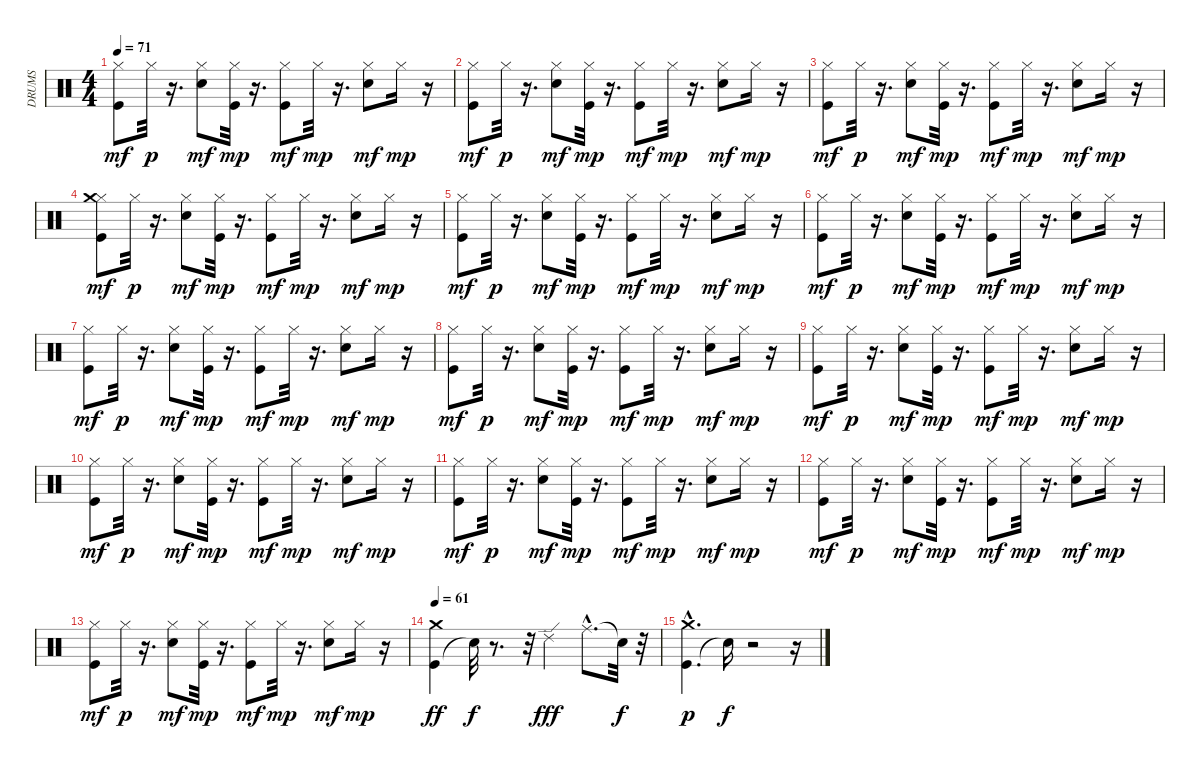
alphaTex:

\track ("DRUMS" "DRUMS") {instrument percussion}
\staff {score}
\articulation defaults
\ts (4 4)
\tempo 71
\clef neutral
\ks c
("Kick (hit)" "Hi-Hat (closed)").8{dy mf} "Hi-Hat (closed)".32{dy p} r.16{d} ("Snare (hit) 2" "Hi-Hat (closed)").8{dy mf} ("Kick (hit)" "Hi-Hat (closed)").32{dy mp} r.16{d} ("Kick (hit)" "Hi-Hat (closed)").8{dy mf} "Hi-Hat (closed)".32{dy mp} r.16{d} ("Snare (hit) 2" "Hi-Hat (closed)").8{dy mf} "Hi-Hat (closed)".16{dy mp} r.16 |
("Kick (hit)" "Hi-Hat (closed)").8{dy mf} "Hi-Hat (closed)".32{dy p} r.16{d} ("Snare (hit) 2" "Hi-Hat (closed)").8{dy mf} ("Hi-Hat (closed)" "Kick (hit)").32{dy mp} r.16{d} ("Kick (hit)" "Hi-Hat (closed)").8{dy mf} "Hi-Hat (closed)".32{dy mp} r.16{d} ("Snare (hit) 2" "Hi-Hat (closed)").8{dy mf} "Hi-Hat (closed)".16{dy mp} r.16 |
("Kick (hit)" "Hi-Hat (closed)").8{dy mf} "Hi-Hat (closed)".32{dy p} r.16{d} ("Snare (hit) 2" "Hi-Hat (closed)").8{dy mf} ("Kick (hit)" "Hi-Hat (closed)").32{dy mp} r.16{d} ("Kick (hit)" "Hi-Hat (closed)").8{dy mf} "Hi-Hat (closed)".32{dy mp} r.16{d} ("Snare (hit) 2" "Hi-Hat (closed)").8{dy mf} "Hi-Hat (closed)".16{dy mp} r.16 |
("Kick (hit)" "Hi-Hat (closed)" "Crash medium (hit)").8{dy mf} "Hi-Hat (closed)".32{dy p} r.16{d} ("Snare (hit) 2" "Hi-Hat (closed)").8{dy mf} ("Hi-Hat (closed)" "Kick (hit)").32{dy mp} r.16{d} ("Kick (hit)" "Hi-Hat (closed)").8{dy mf} "Hi-Hat (closed)".32{dy mp} r.16{d} ("Snare (hit) 2" "Hi-Hat (closed)").8{dy mf} "Hi-Hat (closed)".16{dy mp} r.16 |
("Kick (hit)" "Hi-Hat (closed)").8{dy mf} "Hi-Hat (closed)".32{dy p} r.16{d} ("Snare (hit) 2" "Hi-Hat (closed)").8{dy mf} ("Kick (hit)" "Hi-Hat (closed)").32{dy mp} r.16{d} ("Kick (hit)" "Hi-Hat (closed)").8{dy mf} "Hi-Hat (closed)".32{dy mp} r.16{d} ("Snare (hit) 2" "Hi-Hat (closed)").8{dy mf} "Hi-Hat (closed)".16{dy mp} r.16 |
("Kick (hit)" "Hi-Hat (closed)").8{dy mf} "Hi-Hat (closed)".32{dy p} r.16{d} ("Snare (hit) 2" "Hi-Hat (closed)").8{dy mf} ("Hi-Hat (closed)" "Kick (hit)").32{dy mp} r.16{d} ("Kick (hit)" "Hi-Hat (closed)").8{dy mf} "Hi-Hat (closed)".32{dy mp} r.16{d} ("Snare (hit) 2" "Hi-Hat (closed)").8{dy mf} "Hi-Hat (closed)".16{dy mp} r.16 |
("Kick (hit)" "Hi-Hat (closed)").8{dy mf} "Hi-Hat (closed)".32{dy p} r.16{d} ("Snare (hit) 2" "Hi-Hat (closed)").8{dy mf} ("Kick (hit)" "Hi-Hat (closed)").32{dy mp} r.16{d} ("Kick (hit)" "Hi-Hat (closed)").8{dy mf} "Hi-Hat (closed)".32{dy mp} r.16{d} ("Snare (hit) 2" "Hi-Hat (closed)").8{dy mf} "Hi-Hat (closed)".16{dy mp} r.16 |
("Kick (hit)" "Hi-Hat (closed)").8{dy mf} "Hi-Hat (closed)".32{dy p} r.16{d} ("Snare (hit) 2" "Hi-Hat (closed)").8{dy mf} ("Hi-Hat (closed)" "Kick (hit)").32{dy mp} r.16{d} ("Kick (hit)" "Hi-Hat (closed)").8{dy mf} "Hi-Hat (closed)".32{dy mp} r.16{d} ("Snare (hit) 2" "Hi-Hat (closed)").8{dy mf} "Hi-Hat (closed)".16{dy mp} r.16 |
("Kick (hit)" "Hi-Hat (closed)").8{dy mf} "Hi-Hat (closed)".32{dy p} r.16{d} ("Snare (hit) 2" "Hi-Hat (closed)").8{dy mf} ("Kick (hit)" "Hi-Hat (closed)").32{dy mp} r.16{d} ("Kick (hit)" "Hi-Hat (closed)").8{dy mf} "Hi-Hat (closed)".32{dy mp} r.16{d} ("Snare (hit) 2" "Hi-Hat (closed)").8{dy mf} "Hi-Hat (closed)".16{dy mp} r.16 |
("Kick (hit)" "Hi-Hat (closed)").8{dy mf} "Hi-Hat (closed)".32{dy p} r.16{d} ("Snare (hit) 2" "Hi-Hat (closed)").8{dy mf} ("Hi-Hat (closed)" "Kick (hit)").32{dy mp} r.16{d} ("Kick (hit)" "Hi-Hat (closed)").8{dy mf} "Hi-Hat (closed)".32{dy mp} r.16{d} ("Snare (hit) 2" "Hi-Hat (closed)").8{dy mf} "Hi-Hat (closed)".16{dy mp} r.16 |
("Kick (hit)" "Hi-Hat (closed)").8{dy mf} "Hi-Hat (closed)".32{dy p} r.16{d} ("Snare (hit) 2" "Hi-Hat (closed)").8{dy mf} ("Kick (hit)" "Hi-Hat (closed)").32{dy mp} r.16{d} ("Kick (hit)" "Hi-Hat (closed)").8{dy mf} "Hi-Hat (closed)".32{dy mp} r.16{d} ("Snare (hit) 2" "Hi-Hat (closed)").8{dy mf} "Hi-Hat (closed)".16{dy mp} r.16 |
("Kick (hit)" "Hi-Hat (closed)").8{dy mf} "Hi-Hat (closed)".32{dy p} r.16{d} ("Snare (hit) 2" "Hi-Hat (closed)").8{dy mf} ("Hi-Hat (closed)" "Kick (hit)").32{dy mp} r.16{d} ("Kick (hit)" "Hi-Hat (closed)").8{dy mf} "Hi-Hat (closed)".32{dy mp} r.16{d} ("Snare (hit) 2" "Hi-Hat (closed)").8{dy mf} "Hi-Hat (closed)".16{dy mp} r.16 |
("Kick (hit)" "Hi-Hat (closed)").8{dy mf} "Hi-Hat (closed)".32{dy p} r.16{d} ("Snare (hit) 2" "Hi-Hat (closed)").8{dy mf} ("Kick (hit)" "Hi-Hat (closed)").32{dy mp} r.16{d} ("Kick (hit)" "Hi-Hat (closed)").8{dy mf} "Hi-Hat (closed)".32{dy mp} r.16{d} ("Snare (hit) 2" "Hi-Hat (closed)").8{dy mf} "Hi-Hat (closed)".16{dy mp} r.16 |
\tempo 61
("Kick (hit)" "Crash medium (hit)").4{dy ff} "Snare (hit)"{t}.32{dy f} r.8{d} r.32 "Ride (edge) 2".4{dy fff} "Ride (middle)"{hac}.8{d} "Snare (hit)"{t}.32{dy f} r.32 |
("Kick (hit)" "Crash medium (hit)"{hac}).4{d dy p} "Snare (hit)"{t}.16{dy f} r.2 r.16
